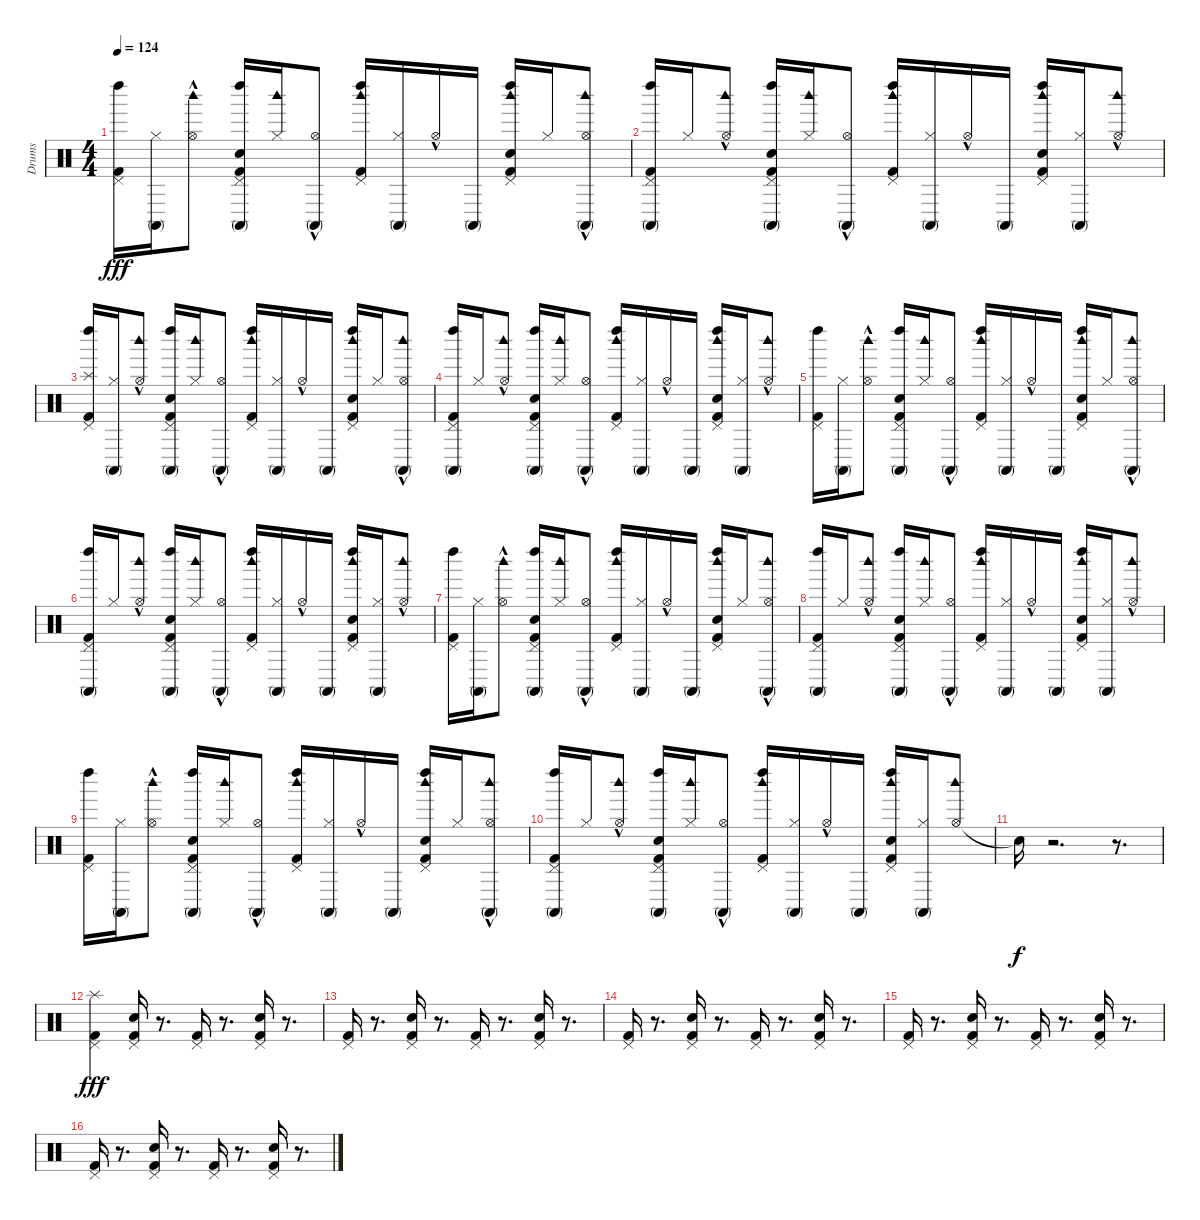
\track ("Drums" "Drums") {instrument percussion}
\staff {score}
\articulation defaults
\ts (4 4)
\tempo 124
\clef neutral
\ks c
("Pedal Hi-Hat (hit)" "Kick (hit) 2" "Left Maraca (hit)").16{dy fff} ("Hi-Hat (closed)" "Conga high (mute)").16 ("Hi-Hat (open)"{hac} "Woodblock high (hit)").8 ("Electric Snare (hit)" "Pedal Hi-Hat (hit)" "Kick (hit) 2" "Conga high (mute)" "Left Maraca (hit)").16 ("Hi-Hat (closed)" "Woodblock high (hit)").16 ("Hi-Hat (open)"{hac} "Conga high (mute)").8 ("Pedal Hi-Hat (hit)" "Kick (hit) 2" "Woodblock high (hit)" "Left Maraca (hit)").16 ("Hi-Hat (closed)" "Conga high (mute)").16 "Hi-Hat (open)"{hac}.16 "Conga high (mute)".16 ("Electric Snare (hit)" "Pedal Hi-Hat (hit)" "Kick (hit) 2" "Woodblock high (hit)" "Left Maraca (hit)").16 "Hi-Hat (closed)".16 ("Hi-Hat (open)"{hac} "Conga high (mute)" "Woodblock high (hit)").8 |
("Pedal Hi-Hat (hit)" "Kick (hit) 2" "Conga high (mute)" "Left Maraca (hit)").16 "Hi-Hat (closed)".16 ("Hi-Hat (open)"{hac} "Woodblock high (hit)").8 ("Electric Snare (hit)" "Pedal Hi-Hat (hit)" "Kick (hit) 2" "Conga high (mute)" "Left Maraca (hit)").16 ("Hi-Hat (closed)" "Woodblock high (hit)").16 ("Hi-Hat (open)"{hac} "Conga high (mute)").8 ("Pedal Hi-Hat (hit)" "Kick (hit) 2" "Woodblock high (hit)" "Left Maraca (hit)").16 ("Hi-Hat (closed)" "Conga high (mute)").16 "Hi-Hat (open)"{hac}.16 "Conga high (mute)".16 ("Electric Snare (hit)" "Pedal Hi-Hat (hit)" "Kick (hit) 2" "Woodblock high (hit)" "Left Maraca (hit)").16 ("Hi-Hat (closed)" "Conga high (mute)").16 ("Hi-Hat (open)"{hac} "Woodblock high (hit)").8 |
("Splash (hit)" "Pedal Hi-Hat (hit)" "Kick (hit) 2" "Left Maraca (hit)").16 ("Hi-Hat (closed)" "Conga high (mute)").16 ("Hi-Hat (open)"{hac} "Woodblock high (hit)").8 ("Electric Snare (hit)" "Pedal Hi-Hat (hit)" "Kick (hit) 2" "Conga high (mute)" "Left Maraca (hit)").16 ("Hi-Hat (closed)" "Woodblock high (hit)").16 ("Hi-Hat (open)"{hac} "Conga high (mute)").8 ("Pedal Hi-Hat (hit)" "Kick (hit) 2" "Woodblock high (hit)" "Left Maraca (hit)").16 ("Hi-Hat (closed)" "Conga high (mute)").16 "Hi-Hat (open)"{hac}.16 "Conga high (mute)".16 ("Electric Snare (hit)" "Pedal Hi-Hat (hit)" "Kick (hit) 2" "Woodblock high (hit)" "Left Maraca (hit)").16 "Hi-Hat (closed)".16 ("Hi-Hat (open)"{hac} "Conga high (mute)" "Woodblock high (hit)").8 |
("Pedal Hi-Hat (hit)" "Kick (hit) 2" "Conga high (mute)" "Left Maraca (hit)").16 "Hi-Hat (closed)".16 ("Hi-Hat (open)"{hac} "Woodblock high (hit)").8 ("Electric Snare (hit)" "Pedal Hi-Hat (hit)" "Kick (hit) 2" "Conga high (mute)" "Left Maraca (hit)").16 ("Hi-Hat (closed)" "Woodblock high (hit)").16 ("Hi-Hat (open)"{hac} "Conga high (mute)").8 ("Pedal Hi-Hat (hit)" "Kick (hit) 2" "Woodblock high (hit)" "Left Maraca (hit)").16 ("Hi-Hat (closed)" "Conga high (mute)").16 "Hi-Hat (open)"{hac}.16 "Conga high (mute)".16 ("Electric Snare (hit)" "Pedal Hi-Hat (hit)" "Kick (hit) 2" "Woodblock high (hit)" "Left Maraca (hit)").16 ("Hi-Hat (closed)" "Conga high (mute)").16 ("Hi-Hat (open)"{hac} "Woodblock high (hit)").8 |
("Pedal Hi-Hat (hit)" "Kick (hit) 2" "Left Maraca (hit)").16 ("Hi-Hat (closed)" "Conga high (mute)").16 ("Hi-Hat (open)"{hac} "Woodblock high (hit)").8 ("Electric Snare (hit)" "Pedal Hi-Hat (hit)" "Kick (hit) 2" "Conga high (mute)" "Left Maraca (hit)").16 ("Hi-Hat (closed)" "Woodblock high (hit)").16 ("Hi-Hat (open)"{hac} "Conga high (mute)").8 ("Pedal Hi-Hat (hit)" "Kick (hit) 2" "Woodblock high (hit)" "Left Maraca (hit)").16 ("Hi-Hat (closed)" "Conga high (mute)").16 "Hi-Hat (open)"{hac}.16 "Conga high (mute)".16 ("Electric Snare (hit)" "Pedal Hi-Hat (hit)" "Kick (hit) 2" "Woodblock high (hit)" "Left Maraca (hit)").16 "Hi-Hat (closed)".16 ("Hi-Hat (open)"{hac} "Conga high (mute)" "Woodblock high (hit)").8 |
("Pedal Hi-Hat (hit)" "Kick (hit) 2" "Conga high (mute)" "Left Maraca (hit)").16 "Hi-Hat (closed)".16 ("Hi-Hat (open)"{hac} "Woodblock high (hit)").8 ("Electric Snare (hit)" "Pedal Hi-Hat (hit)" "Kick (hit) 2" "Conga high (mute)" "Left Maraca (hit)").16 ("Hi-Hat (closed)" "Woodblock high (hit)").16 ("Hi-Hat (open)"{hac} "Conga high (mute)").8 ("Pedal Hi-Hat (hit)" "Kick (hit) 2" "Woodblock high (hit)" "Left Maraca (hit)").16 ("Hi-Hat (closed)" "Conga high (mute)").16 "Hi-Hat (open)"{hac}.16 "Conga high (mute)".16 ("Electric Snare (hit)" "Pedal Hi-Hat (hit)" "Kick (hit) 2" "Woodblock high (hit)" "Left Maraca (hit)").16 ("Hi-Hat (closed)" "Conga high (mute)").16 ("Hi-Hat (open)"{hac} "Woodblock high (hit)").8 |
("Pedal Hi-Hat (hit)" "Kick (hit) 2" "Left Maraca (hit)").16 ("Hi-Hat (closed)" "Conga high (mute)").16 ("Hi-Hat (open)"{hac} "Woodblock high (hit)").8 ("Electric Snare (hit)" "Pedal Hi-Hat (hit)" "Kick (hit) 2" "Conga high (mute)" "Left Maraca (hit)").16 ("Hi-Hat (closed)" "Woodblock high (hit)").16 ("Hi-Hat (open)"{hac} "Conga high (mute)").8 ("Pedal Hi-Hat (hit)" "Kick (hit) 2" "Woodblock high (hit)" "Left Maraca (hit)").16 ("Hi-Hat (closed)" "Conga high (mute)").16 "Hi-Hat (open)"{hac}.16 "Conga high (mute)".16 ("Electric Snare (hit)" "Pedal Hi-Hat (hit)" "Kick (hit) 2" "Woodblock high (hit)" "Left Maraca (hit)").16 "Hi-Hat (closed)".16 ("Hi-Hat (open)"{hac} "Conga high (mute)" "Woodblock high (hit)").8 |
("Pedal Hi-Hat (hit)" "Kick (hit) 2" "Conga high (mute)" "Left Maraca (hit)").16 "Hi-Hat (closed)".16 ("Hi-Hat (open)"{hac} "Woodblock high (hit)").8 ("Electric Snare (hit)" "Pedal Hi-Hat (hit)" "Kick (hit) 2" "Conga high (mute)" "Left Maraca (hit)").16 ("Hi-Hat (closed)" "Woodblock high (hit)").16 ("Hi-Hat (open)"{hac} "Conga high (mute)").8 ("Pedal Hi-Hat (hit)" "Kick (hit) 2" "Woodblock high (hit)" "Left Maraca (hit)").16 ("Hi-Hat (closed)" "Conga high (mute)").16 "Hi-Hat (open)"{hac}.16 "Conga high (mute)".16 ("Electric Snare (hit)" "Pedal Hi-Hat (hit)" "Kick (hit) 2" "Woodblock high (hit)" "Left Maraca (hit)").16 ("Hi-Hat (closed)" "Conga high (mute)").16 ("Hi-Hat (open)"{hac} "Woodblock high (hit)").8 |
("Pedal Hi-Hat (hit)" "Kick (hit) 2" "Left Maraca (hit)").16 ("Hi-Hat (closed)" "Conga high (mute)").16 ("Hi-Hat (open)"{hac} "Woodblock high (hit)").8 ("Electric Snare (hit)" "Pedal Hi-Hat (hit)" "Kick (hit) 2" "Conga high (mute)" "Left Maraca (hit)").16 ("Hi-Hat (closed)" "Woodblock high (hit)").16 ("Hi-Hat (open)"{hac} "Conga high (mute)").8 ("Pedal Hi-Hat (hit)" "Kick (hit) 2" "Woodblock high (hit)" "Left Maraca (hit)").16 ("Hi-Hat (closed)" "Conga high (mute)").16 "Hi-Hat (open)"{hac}.16 "Conga high (mute)".16 ("Electric Snare (hit)" "Pedal Hi-Hat (hit)" "Kick (hit) 2" "Woodblock high (hit)" "Left Maraca (hit)").16 "Hi-Hat (closed)".16 ("Hi-Hat (open)"{hac} "Conga high (mute)" "Woodblock high (hit)").8 |
("Pedal Hi-Hat (hit)" "Kick (hit) 2" "Conga high (mute)" "Left Maraca (hit)").16 "Hi-Hat (closed)".16 ("Hi-Hat (open)"{hac} "Woodblock high (hit)").8 ("Electric Snare (hit)" "Pedal Hi-Hat (hit)" "Kick (hit) 2" "Conga high (mute)" "Left Maraca (hit)").16 ("Hi-Hat (closed)" "Woodblock high (hit)").16 ("Hi-Hat (open)"{hac} "Conga high (mute)").8 ("Pedal Hi-Hat (hit)" "Kick (hit) 2" "Woodblock high (hit)" "Left Maraca (hit)").16 ("Hi-Hat (closed)" "Conga high (mute)").16 "Hi-Hat (open)"{hac}.16 "Conga high (mute)".16 ("Electric Snare (hit)" "Pedal Hi-Hat (hit)" "Kick (hit) 2" "Woodblock high (hit)" "Left Maraca (hit)").16 ("Hi-Hat (closed)" "Conga high (mute)").16 ("Hi-Hat (open)" "Woodblock high (hit)").8 |
"Snare (hit)"{t}.16{dy f} r.2{d} r.8{d} |
("Splash (hit)" "Pedal Hi-Hat (hit)" "Kick (hit) 2").4{dy fff} ("Electric Snare (hit)" "Pedal Hi-Hat (hit)" "Kick (hit) 2").16 r.8{d} ("Pedal Hi-Hat (hit)" "Kick (hit) 2").16 r.8{d} ("Electric Snare (hit)" "Pedal Hi-Hat (hit)" "Kick (hit) 2").16 r.8{d} |
("Pedal Hi-Hat (hit)" "Kick (hit) 2").16 r.8{d} ("Electric Snare (hit)" "Pedal Hi-Hat (hit)" "Kick (hit) 2").16 r.8{d} ("Pedal Hi-Hat (hit)" "Kick (hit) 2").16 r.8{d} ("Electric Snare (hit)" "Pedal Hi-Hat (hit)" "Kick (hit) 2").16 r.8{d} |
("Pedal Hi-Hat (hit)" "Kick (hit) 2").16 r.8{d} ("Electric Snare (hit)" "Pedal Hi-Hat (hit)" "Kick (hit) 2").16 r.8{d} ("Pedal Hi-Hat (hit)" "Kick (hit) 2").16 r.8{d} ("Electric Snare (hit)" "Pedal Hi-Hat (hit)" "Kick (hit) 2").16 r.8{d} |
("Pedal Hi-Hat (hit)" "Kick (hit) 2").16 r.8{d} ("Electric Snare (hit)" "Pedal Hi-Hat (hit)" "Kick (hit) 2").16 r.8{d} ("Pedal Hi-Hat (hit)" "Kick (hit) 2").16 r.8{d} ("Electric Snare (hit)" "Pedal Hi-Hat (hit)" "Kick (hit) 2").16 r.8{d} |
("Pedal Hi-Hat (hit)" "Kick (hit) 2").16 r.8{d} ("Electric Snare (hit)" "Pedal Hi-Hat (hit)" "Kick (hit) 2").16 r.8{d} ("Pedal Hi-Hat (hit)" "Kick (hit) 2").16 r.8{d} ("Electric Snare (hit)" "Pedal Hi-Hat (hit)" "Kick (hit) 2").16 r.8{d}
